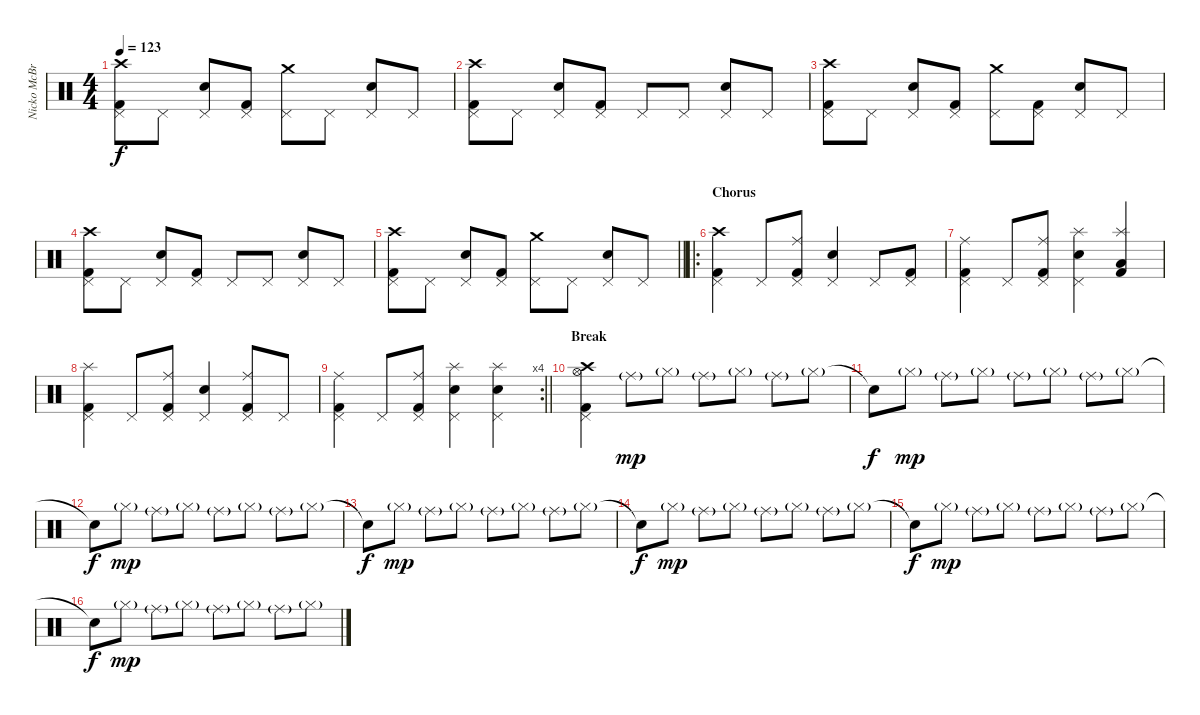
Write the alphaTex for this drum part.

\track ("Nicko McBrain" "Nicko McBr") {instrument percussion}
\staff {score}
\articulation defaults
\ts (4 4)
\tempo 123
\clef neutral
\ks c
("Kick (hit) 2" "Pedal Hi-Hat (hit)" "Crash high (hit)").8{dy f} "Pedal Hi-Hat (hit)".8 ("Snare (hit) 2" "Pedal Hi-Hat (hit)").8 ("Kick (hit) 2" "Pedal Hi-Hat (hit)").8 ("Pedal Hi-Hat (hit)" "Crash medium (hit)").8 "Pedal Hi-Hat (hit)".8 ("Snare (hit) 2" "Pedal Hi-Hat (hit)").8 "Pedal Hi-Hat (hit)".8 |
("Kick (hit) 2" "Pedal Hi-Hat (hit)" "Crash high (hit)").8 "Pedal Hi-Hat (hit)".8 ("Snare (hit) 2" "Pedal Hi-Hat (hit)").8 ("Kick (hit) 2" "Pedal Hi-Hat (hit)").8 "Pedal Hi-Hat (hit)".8 "Pedal Hi-Hat (hit)".8 ("Snare (hit) 2" "Pedal Hi-Hat (hit)").8 "Pedal Hi-Hat (hit)".8 |
("Kick (hit) 2" "Pedal Hi-Hat (hit)" "Crash high (hit)").8 "Pedal Hi-Hat (hit)".8 ("Snare (hit) 2" "Pedal Hi-Hat (hit)").8 ("Kick (hit) 2" "Pedal Hi-Hat (hit)").8 ("Pedal Hi-Hat (hit)" "Crash medium (hit)").8 ("Kick (hit) 2" "Pedal Hi-Hat (hit)").8 ("Snare (hit) 2" "Pedal Hi-Hat (hit)").8 "Pedal Hi-Hat (hit)".8 |
("Kick (hit) 2" "Pedal Hi-Hat (hit)" "Crash high (hit)").8 "Pedal Hi-Hat (hit)".8 ("Snare (hit) 2" "Pedal Hi-Hat (hit)").8 ("Kick (hit) 2" "Pedal Hi-Hat (hit)").8 "Pedal Hi-Hat (hit)".8 "Pedal Hi-Hat (hit)".8 ("Snare (hit) 2" "Pedal Hi-Hat (hit)").8 "Pedal Hi-Hat (hit)".8 |
\barLineRight lightlight
("Kick (hit) 2" "Pedal Hi-Hat (hit)" "Crash high (hit)").8 "Pedal Hi-Hat (hit)".8 ("Snare (hit) 2" "Pedal Hi-Hat (hit)").8 ("Kick (hit) 2" "Pedal Hi-Hat (hit)").8 ("Pedal Hi-Hat (hit)" "Crash medium (hit)").8 "Pedal Hi-Hat (hit)".8 ("Snare (hit) 2" "Pedal Hi-Hat (hit)").8 "Pedal Hi-Hat (hit)".8 |
\ro
\section ("" "Chorus")
("Kick (hit) 2" "Pedal Hi-Hat (hit)" "Crash high (hit)").4 "Pedal Hi-Hat (hit)".8 ("Kick (hit) 2" "Pedal Hi-Hat (hit)" "Ride (middle)").8 ("Snare (hit) 2" "Pedal Hi-Hat (hit)").4 "Pedal Hi-Hat (hit)".8 ("Kick (hit) 2" "Pedal Hi-Hat (hit)").8 |
("Kick (hit) 2" "Pedal Hi-Hat (hit)" "Ride (middle)").4 "Pedal Hi-Hat (hit)".8 ("Kick (hit) 2" "Pedal Hi-Hat (hit)" "Ride (middle)").8 ("Snare (hit) 2" "Pedal Hi-Hat (hit)" "Splash (hit)").4 ("Kick (hit) 2" "Low Tom (hit)" "Splash (hit)").4 |
("Kick (hit) 2" "Pedal Hi-Hat (hit)" "Splash (hit)").4 "Pedal Hi-Hat (hit)".8 ("Kick (hit) 2" "Pedal Hi-Hat (hit)" "Ride (middle)").8 ("Snare (hit) 2" "Pedal Hi-Hat (hit)").4 ("Kick (hit) 2" "Pedal Hi-Hat (hit)" "Ride (middle)").8 "Pedal Hi-Hat (hit)".8 |
\rc 4
\barLineRight lightlight
("Kick (hit) 2" "Pedal Hi-Hat (hit)" "Ride (middle)").4 "Pedal Hi-Hat (hit)".8 ("Kick (hit) 2" "Pedal Hi-Hat (hit)" "Ride (middle)").8 ("Snare (hit) 2" "Pedal Hi-Hat (hit)" "Splash (hit)").4 ("Snare (hit) 2" "Pedal Hi-Hat (hit)" "Splash (hit)").4 |
\section ("" "Break")
("Kick (hit) 2" "Pedal Hi-Hat (hit)" "Hi-Hat (open)" "Crash high (hit)").4 "Ride (middle)"{g}.8{dy mp} "Hi-Hat (closed)"{g}.8 "Ride (middle)"{g}.8 "Hi-Hat (closed)"{g}.8 "Ride (middle)"{g}.8 "Hi-Hat (closed)"{g}.8 |
"Snare (hit)"{t}.8{dy f} "Hi-Hat (closed)"{g}.8{dy mp} "Ride (middle)"{g}.8 "Hi-Hat (closed)"{g}.8 "Ride (middle)"{g}.8 "Hi-Hat (closed)"{g}.8 "Ride (middle)"{g}.8 "Hi-Hat (closed)"{g}.8 |
"Snare (hit)"{t}.8{dy f} "Hi-Hat (closed)"{g}.8{dy mp} "Ride (middle)"{g}.8 "Hi-Hat (closed)"{g}.8 "Ride (middle)"{g}.8 "Hi-Hat (closed)"{g}.8 "Ride (middle)"{g}.8 "Hi-Hat (closed)"{g}.8 |
"Snare (hit)"{t}.8{dy f} "Hi-Hat (closed)"{g}.8{dy mp} "Ride (middle)"{g}.8 "Hi-Hat (closed)"{g}.8 "Ride (middle)"{g}.8 "Hi-Hat (closed)"{g}.8 "Ride (middle)"{g}.8 "Hi-Hat (closed)"{g}.8 |
"Snare (hit)"{t}.8{dy f} "Hi-Hat (closed)"{g}.8{dy mp} "Ride (middle)"{g}.8 "Hi-Hat (closed)"{g}.8 "Ride (middle)"{g}.8 "Hi-Hat (closed)"{g}.8 "Ride (middle)"{g}.8 "Hi-Hat (closed)"{g}.8 |
"Snare (hit)"{t}.8{dy f} "Hi-Hat (closed)"{g}.8{dy mp} "Ride (middle)"{g}.8 "Hi-Hat (closed)"{g}.8 "Ride (middle)"{g}.8 "Hi-Hat (closed)"{g}.8 "Ride (middle)"{g}.8 "Hi-Hat (closed)"{g}.8 |
"Snare (hit)"{t}.8{dy f} "Hi-Hat (closed)"{g}.8{dy mp} "Ride (middle)"{g}.8 "Hi-Hat (closed)"{g}.8 "Ride (middle)"{g}.8 "Hi-Hat (closed)"{g}.8 "Ride (middle)"{g}.8 "Hi-Hat (closed)"{g}.8
